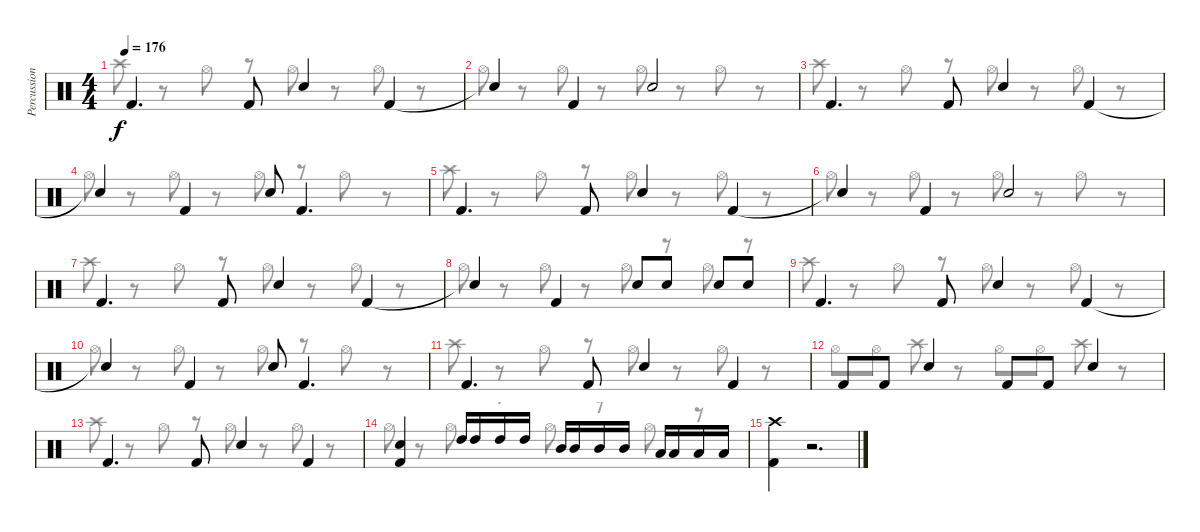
\track ("Percussion" "Percussion") {instrument percussion}
\staff {score}
\articulation defaults
\voice
\ts (4 4)
\tempo 176
\clef neutral
\ks c "Kick (hit) 2".4{d dy f} "Kick (hit) 2".8 "Electric Snare (hit)".4 "Kick (hit) 2".4
|
"Snare (hit)"{t}.4 "Kick (hit) 2".4 "Electric Snare (hit)".2 |
"Kick (hit) 2".4{d} "Kick (hit) 2".8 "Electric Snare (hit)".4 "Kick (hit) 2".4 |
"Snare (hit)"{t}.4 "Kick (hit) 2".4 "Electric Snare (hit)".8 "Kick (hit) 2".4{d} |
"Kick (hit) 2".4{d} "Kick (hit) 2".8 "Electric Snare (hit)".4 "Kick (hit) 2".4 |
"Snare (hit)"{t}.4 "Kick (hit) 2".4 "Electric Snare (hit)".2 |
"Kick (hit) 2".4{d} "Kick (hit) 2".8 "Electric Snare (hit)".4 "Kick (hit) 2".4 |
"Snare (hit)"{t}.4 "Kick (hit) 2".4 "Electric Snare (hit)".8 "Electric Snare (hit)".8 "Electric Snare (hit)".8 "Electric Snare (hit)".8 |
"Kick (hit) 2".4{d} "Kick (hit) 2".8 "Electric Snare (hit)".4 "Kick (hit) 2".4 |
"Snare (hit)"{t}.4 "Kick (hit) 2".4 "Electric Snare (hit)".8 "Kick (hit) 2".4{d} |
"Kick (hit) 2".4{d} "Kick (hit) 2".8 "Electric Snare (hit)".4 "Kick (hit) 2".4 |
"Kick (hit) 2".8 "Kick (hit) 2".8 "Electric Snare (hit)".4 "Kick (hit) 2".8 "Kick (hit) 2".8 "Electric Snare (hit)".4 |
"Kick (hit) 2".4{d} "Kick (hit) 2".8 "Electric Snare (hit)".4 "Kick (hit) 2".4 |
("Electric Snare (hit)" "Kick (hit) 2").4 "High Tom (hit)".16 "High Tom (hit)".16 "High Tom (hit)".16 "High Tom (hit)".16 "Mid Tom (hit)".16 "Mid Tom (hit)".16 "Mid Tom (hit)".16 "Mid Tom (hit)".16 "Low Tom (hit)".16 "Low Tom (hit)".16 "Low Tom (hit)".16 "Low Tom (hit)".16 |
("Crash high (hit)" "Kick (hit) 2").4 r.2{d} |
\voice
\clef neutral
\ottava regular
\simile none
\ks c "Crash high (hit)".8{dy f}
r.8 "Hi-Hat (open)".8 r.8 "Hi-Hat (open)".8 r.8 "Hi-Hat (open)".8 r.8 |
"Hi-Hat (open)".8 r.8 "Hi-Hat (open)".8 r.8 "Hi-Hat (open)".8 r.8 "Hi-Hat (open)".8 r.8 |
"Crash high (hit)".8 r.8 "Hi-Hat (open)".8 r.8 "Hi-Hat (open)".8 r.8 "Hi-Hat (open)".8 r.8 |
"Hi-Hat (open)".8 r.8 "Hi-Hat (open)".8 r.8 "Hi-Hat (open)".8 r.8 "Hi-Hat (open)".8 r.8 |
"Crash high (hit)".8 r.8 "Hi-Hat (open)".8 r.8 "Hi-Hat (open)".8 r.8 "Hi-Hat (open)".8 r.8 |
"Hi-Hat (open)".8 r.8 "Hi-Hat (open)".8 r.8 "Hi-Hat (open)".8 r.8 "Hi-Hat (open)".8 r.8 |
"Crash high (hit)".8 r.8 "Hi-Hat (open)".8 r.8 "Hi-Hat (open)".8 r.8 "Hi-Hat (open)".8 r.8 |
"Hi-Hat (open)".8 r.8 "Hi-Hat (open)".8 r.8 "Hi-Hat (open)".8 r.8 "Hi-Hat (open)".8 r.8 |
"Crash high (hit)".8 r.8 "Hi-Hat (open)".8 r.8 "Hi-Hat (open)".8 r.8 "Hi-Hat (open)".8 r.8 |
"Hi-Hat (open)".8 r.8 "Hi-Hat (open)".8 r.8 "Hi-Hat (open)".8 r.8 "Hi-Hat (open)".8 r.8 |
"Crash high (hit)".8 r.8 "Hi-Hat (open)".8 r.8 "Hi-Hat (open)".8 r.8 "Hi-Hat (open)".8 r.8 |
"Hi-Hat (open)".8 "Hi-Hat (open)".8 "Crash high (hit)".8 r.8 "Hi-Hat (open)".8 "Hi-Hat (open)".8 "Crash high (hit)".8 r.8 |
"Crash high (hit)".8 r.8 "Hi-Hat (open)".8 r.8 "Hi-Hat (open)".8 r.8 "Hi-Hat (open)".8 r.8 |
"Hi-Hat (open)".8 r.8 "Hi-Hat (open)".8 r.8 "Hi-Hat (open)".8 r.8 "Hi-Hat (open)".8 r.8 |
|
